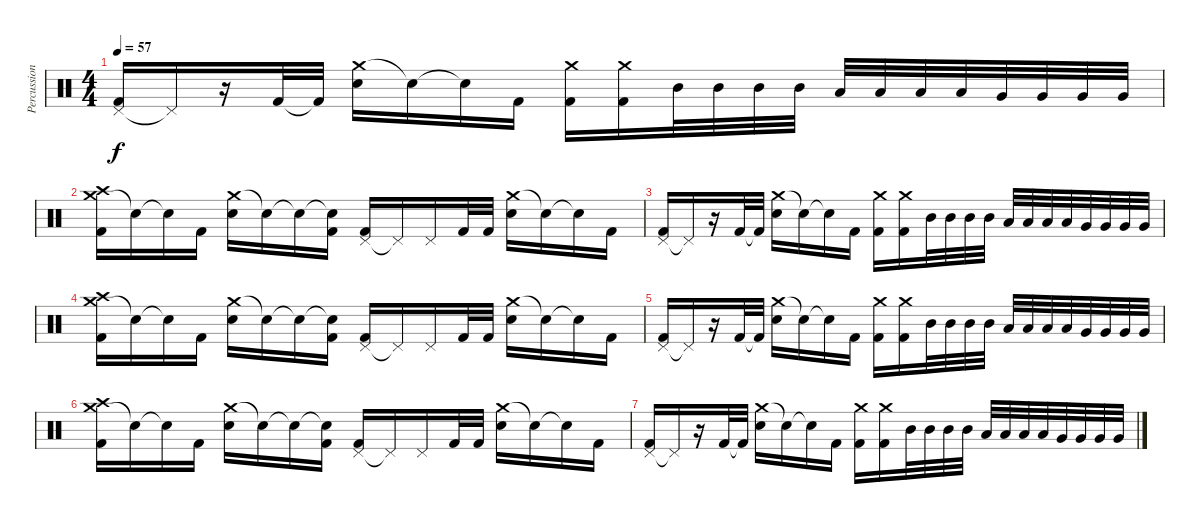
\track ("Percussion" "Percussion") {instrument percussion}
\staff {score}
\articulation defaults
\ts (4 4)
\tempo 57
\clef neutral
\ks c
("Pedal Hi-Hat (hit)" "Kick (hit) 2").16{dy f} "Pedal Hi-Hat (hit)"{t}.16 r.16 "Kick (hit) 2".32 "Kick (hit) 2"{t}.32 ("Crash medium (hit)" "Snare (hit) 2").16 "Snare (hit)"{t}.16 "Snare (hit)"{t}.16 "Kick (hit) 2".16 ("Crash medium (hit)" "Kick (hit) 2").16 ("Crash medium (hit)" "Kick (hit) 2").16 "Mid Tom (hit)".32 "Mid Tom (hit)".32 "Mid Tom (hit)".32 "Mid Tom (hit)".32 "Low Tom (hit)".32 "Low Tom (hit)".32 "Low Tom (hit)".32 "Low Tom (hit)".32 "Very Low Tom (hit)".32 "Very Low Tom (hit)".32 "Very Low Tom (hit)".32 "Very Low Tom (hit)".32 |
("Crash medium (hit)" "Crash high (hit)" "Kick (hit) 2").16 "Snare (hit)"{t}.16 "Snare (hit)"{t}.16 "Kick (hit) 2".16 ("Crash medium (hit)" "Snare (hit) 2").16 "Snare (hit)"{t}.16 "Snare (hit)"{t}.16 ("Snare (hit)"{t} "Kick (hit) 2").16 ("Pedal Hi-Hat (hit)" "Kick (hit) 2").16 "Pedal Hi-Hat (hit)"{t}.16 "Pedal Hi-Hat (hit)".16 "Kick (hit) 2".32 "Kick (hit) 2".32 ("Crash medium (hit)" "Snare (hit) 2").16 "Snare (hit)"{t}.16 "Snare (hit)"{t}.16 "Kick (hit) 2".16 |
("Pedal Hi-Hat (hit)" "Kick (hit) 2").16 "Pedal Hi-Hat (hit)"{t}.16 r.16 "Kick (hit) 2".32 "Kick (hit) 2"{t}.32 ("Crash medium (hit)" "Snare (hit) 2").16 "Snare (hit)"{t}.16 "Snare (hit)"{t}.16 "Kick (hit) 2".16 ("Crash medium (hit)" "Kick (hit) 2").16 ("Crash medium (hit)" "Kick (hit) 2").16 "Mid Tom (hit)".32 "Mid Tom (hit)".32 "Mid Tom (hit)".32 "Mid Tom (hit)".32 "Low Tom (hit)".32 "Low Tom (hit)".32 "Low Tom (hit)".32 "Low Tom (hit)".32 "Very Low Tom (hit)".32 "Very Low Tom (hit)".32 "Very Low Tom (hit)".32 "Very Low Tom (hit)".32 |
("Crash medium (hit)" "Crash high (hit)" "Kick (hit) 2").16 "Snare (hit)"{t}.16 "Snare (hit)"{t}.16 "Kick (hit) 2".16 ("Crash medium (hit)" "Snare (hit) 2").16 "Snare (hit)"{t}.16 "Snare (hit)"{t}.16 ("Snare (hit)"{t} "Kick (hit) 2").16 ("Pedal Hi-Hat (hit)" "Kick (hit) 2").16 "Pedal Hi-Hat (hit)"{t}.16 "Pedal Hi-Hat (hit)".16 "Kick (hit) 2".32 "Kick (hit) 2".32 ("Crash medium (hit)" "Snare (hit) 2").16 "Snare (hit)"{t}.16 "Snare (hit)"{t}.16 "Kick (hit) 2".16 |
("Pedal Hi-Hat (hit)" "Kick (hit) 2").16 "Pedal Hi-Hat (hit)"{t}.16 r.16 "Kick (hit) 2".32 "Kick (hit) 2"{t}.32 ("Crash medium (hit)" "Snare (hit) 2").16 "Snare (hit)"{t}.16 "Snare (hit)"{t}.16 "Kick (hit) 2".16 ("Crash medium (hit)" "Kick (hit) 2").16 ("Crash medium (hit)" "Kick (hit) 2").16 "Mid Tom (hit)".32 "Mid Tom (hit)".32 "Mid Tom (hit)".32 "Mid Tom (hit)".32 "Low Tom (hit)".32 "Low Tom (hit)".32 "Low Tom (hit)".32 "Low Tom (hit)".32 "Very Low Tom (hit)".32 "Very Low Tom (hit)".32 "Very Low Tom (hit)".32 "Very Low Tom (hit)".32 |
("Crash medium (hit)" "Crash high (hit)" "Kick (hit) 2").16 "Snare (hit)"{t}.16 "Snare (hit)"{t}.16 "Kick (hit) 2".16 ("Crash medium (hit)" "Snare (hit) 2").16 "Snare (hit)"{t}.16 "Snare (hit)"{t}.16 ("Snare (hit)"{t} "Kick (hit) 2").16 ("Pedal Hi-Hat (hit)" "Kick (hit) 2").16 "Pedal Hi-Hat (hit)"{t}.16 "Pedal Hi-Hat (hit)".16 "Kick (hit) 2".32 "Kick (hit) 2".32 ("Crash medium (hit)" "Snare (hit) 2").16 "Snare (hit)"{t}.16 "Snare (hit)"{t}.16 "Kick (hit) 2".16 |
("Pedal Hi-Hat (hit)" "Kick (hit) 2").16 "Pedal Hi-Hat (hit)"{t}.16 r.16 "Kick (hit) 2".32 "Kick (hit) 2"{t}.32 ("Crash medium (hit)" "Snare (hit) 2").16 "Snare (hit)"{t}.16 "Snare (hit)"{t}.16 "Kick (hit) 2".16 ("Crash medium (hit)" "Kick (hit) 2").16 ("Crash medium (hit)" "Kick (hit) 2").16 "Mid Tom (hit)".32 "Mid Tom (hit)".32 "Mid Tom (hit)".32 "Mid Tom (hit)".32 "Low Tom (hit)".32 "Low Tom (hit)".32 "Low Tom (hit)".32 "Low Tom (hit)".32 "Very Low Tom (hit)".32 "Very Low Tom (hit)".32 "Very Low Tom (hit)".32 "Very Low Tom (hit)".32
